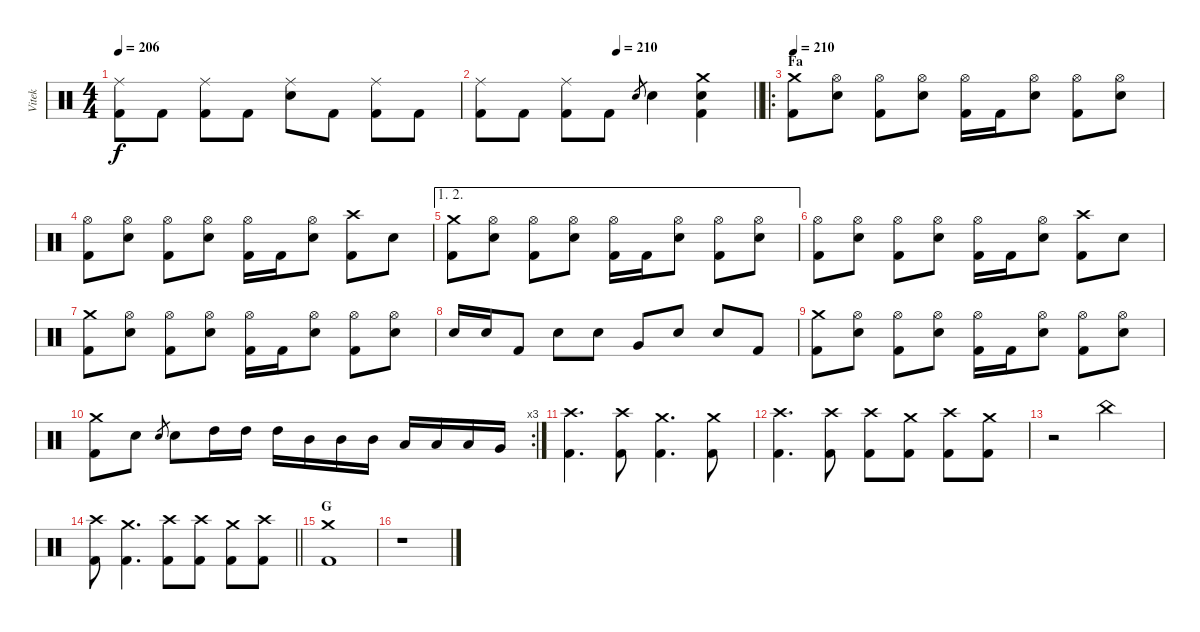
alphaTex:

\track ("Vitek" "Vitek") {instrument percussion}
\staff {score}
\articulation defaults
\ts (4 4)
\tempo 206
\clef neutral
\ks c
("Ride (middle)" "Kick (hit) 2").8{dy f} "Kick (hit) 2".8 ("Ride (middle)" "Kick (hit) 2").8 "Kick (hit) 2".8 ("Ride (middle)" "Electric Snare (hit)").8 "Kick (hit) 2".8 ("Ride (middle)" "Kick (hit) 2").8 "Kick (hit) 2".8 |
\tempo (210 0.5)
\barLineRight lightlight
("Ride (middle)" "Kick (hit) 2").8 "Kick (hit) 2".8 ("Ride (middle)" "Kick (hit) 2").8 "Kick (hit) 2".8 "Electric Snare (hit)".8{gr} "Electric Snare (hit)".4 ("Crash medium (hit)" "Electric Snare (hit)" "Kick (hit) 2").4 |
\ro
\section ("" "Fa")
\tempo 210
("Crash medium (hit)" "Kick (hit) 2").8 ("Hi-Hat (open)" "Electric Snare (hit)").8 ("Hi-Hat (open)" "Kick (hit) 2").8 ("Hi-Hat (open)" "Electric Snare (hit)").8 ("Hi-Hat (open)" "Kick (hit) 2").16 "Kick (hit) 2".16 ("Hi-Hat (open)" "Electric Snare (hit)").8 ("Hi-Hat (open)" "Kick (hit) 2").8 ("Hi-Hat (open)" "Electric Snare (hit)").8 |
("Hi-Hat (open)" "Kick (hit) 2").8 ("Hi-Hat (open)" "Electric Snare (hit)").8 ("Hi-Hat (open)" "Kick (hit) 2").8 ("Hi-Hat (open)" "Electric Snare (hit)").8 ("Hi-Hat (open)" "Kick (hit) 2").16 "Kick (hit) 2".16 ("Hi-Hat (open)" "Electric Snare (hit)").8 ("Crash high (hit)" "Kick (hit) 2").8 "Electric Snare (hit)".8 |
\ae (1 2)
("Crash medium (hit)" "Kick (hit) 2").8 ("Hi-Hat (open)" "Electric Snare (hit)").8 ("Hi-Hat (open)" "Kick (hit) 2").8 ("Hi-Hat (open)" "Electric Snare (hit)").8 ("Hi-Hat (open)" "Kick (hit) 2").16 "Kick (hit) 2".16 ("Hi-Hat (open)" "Electric Snare (hit)").8 ("Hi-Hat (open)" "Kick (hit) 2").8 ("Hi-Hat (open)" "Electric Snare (hit)").8 |
("Hi-Hat (open)" "Kick (hit) 2").8 ("Hi-Hat (open)" "Electric Snare (hit)").8 ("Hi-Hat (open)" "Kick (hit) 2").8 ("Hi-Hat (open)" "Electric Snare (hit)").8 ("Hi-Hat (open)" "Kick (hit) 2").16 "Kick (hit) 2".16 ("Hi-Hat (open)" "Electric Snare (hit)").8 ("Crash high (hit)" "Kick (hit) 2").8 "Electric Snare (hit)".8 |
("Crash medium (hit)" "Kick (hit) 2").8 ("Hi-Hat (open)" "Electric Snare (hit)").8 ("Hi-Hat (open)" "Kick (hit) 2").8 ("Hi-Hat (open)" "Electric Snare (hit)").8 ("Hi-Hat (open)" "Kick (hit) 2").16 "Kick (hit) 2".16 ("Hi-Hat (open)" "Electric Snare (hit)").8 ("Hi-Hat (open)" "Kick (hit) 2").8 ("Hi-Hat (open)" "Electric Snare (hit)").8 |
"Electric Snare (hit)".16 "Electric Snare (hit)".16 "Kick (hit) 2".8 "Electric Snare (hit)".8 "Electric Snare (hit)".8 "Very Low Tom (hit)".8 "Electric Snare (hit)".8 "Electric Snare (hit)".8 "Kick (hit) 2".8 |
("Crash medium (hit)" "Kick (hit) 2").8 ("Hi-Hat (open)" "Electric Snare (hit)").8 ("Hi-Hat (open)" "Kick (hit) 2").8 ("Hi-Hat (open)" "Electric Snare (hit)").8 ("Hi-Hat (open)" "Kick (hit) 2").16 "Kick (hit) 2".16 ("Hi-Hat (open)" "Electric Snare (hit)").8 ("Hi-Hat (open)" "Kick (hit) 2").8 ("Hi-Hat (open)" "Electric Snare (hit)").8 |
\rc 3
("Crash medium (hit)" "Kick (hit) 2").8 "Electric Snare (hit)".8 "Electric Snare (hit)".8{gr} "Electric Snare (hit)".8 "High Tom (hit)".16 "High Tom (hit)".16 "High Tom (hit)".16 "Mid Tom (hit)".16 "Mid Tom (hit)".16 "Mid Tom (hit)".16 "Low Tom (hit)".16 "Low Tom (hit)".16 "Low Tom (hit)".16 "Very Low Tom (hit)".16 |
("Crash high (hit)" "Kick (hit) 2").4{d} ("Crash high (hit)" "Kick (hit) 2").8 ("Crash medium (hit)" "Kick (hit) 2").4{d} ("Crash medium (hit)" "Kick (hit) 2").8 |
("Crash high (hit)" "Kick (hit) 2").4{d} ("Crash high (hit)" "Kick (hit) 2").8 ("Crash high (hit)" "Kick (hit) 2").8 ("Crash medium (hit)" "Kick (hit) 2").8 ("Crash high (hit)" "Kick (hit) 2").8 ("Crash medium (hit)" "Kick (hit) 2").8 |
r.2 "China (hit)".2 |
\barLineRight lightlight
("Crash high (hit)" "Kick (hit) 2").8 ("Crash medium (hit)" "Kick (hit) 2").4{d} ("Crash high (hit)" "Kick (hit) 2").8 ("Crash high (hit)" "Kick (hit) 2").8 ("Crash medium (hit)" "Kick (hit) 2").8 ("Crash high (hit)" "Kick (hit) 2").8 |
\section ("" "G")
("Crash medium (hit)" "Kick (hit) 2").1 |
r.1
